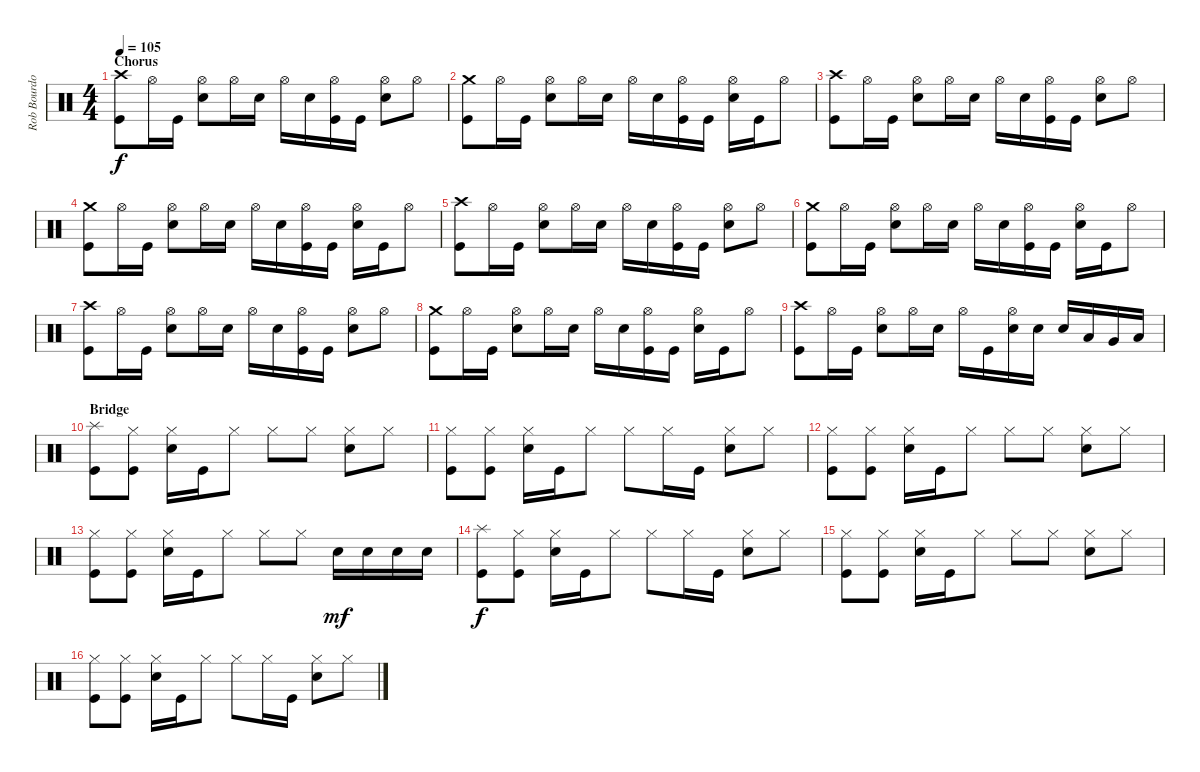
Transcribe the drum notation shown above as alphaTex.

\track ("Rob Bourdon - Drums" "Rob Bourdo") {instrument percussion}
\staff {score}
\articulation defaults
\ts (4 4)
\section ("" "Chorus")
\tempo 105
\clef neutral
\ks c
("Crash high (hit)" "Kick (hit)").8{dy f} "Hi-Hat (open)".16 "Kick (hit)".16 ("Hi-Hat (open)" "Electric Snare (hit)").8 "Hi-Hat (open)".16 "Electric Snare (hit)".16 "Hi-Hat (open)".16 "Electric Snare (hit)".16 ("Hi-Hat (open)" "Kick (hit)").16 "Kick (hit)".16 ("Hi-Hat (open)" "Electric Snare (hit)").8 "Hi-Hat (open)".8 |
("Crash medium (hit)" "Kick (hit)").8 "Hi-Hat (open)".16 "Kick (hit)".16 ("Hi-Hat (open)" "Electric Snare (hit)").8 "Hi-Hat (open)".16 "Electric Snare (hit)".16 "Hi-Hat (open)".16 "Electric Snare (hit)".16 ("Hi-Hat (open)" "Kick (hit)").16 "Kick (hit)".16 ("Hi-Hat (open)" "Electric Snare (hit)").16 "Kick (hit)".16 "Hi-Hat (open)".8 |
("Crash high (hit)" "Kick (hit)").8 "Hi-Hat (open)".16 "Kick (hit)".16 ("Hi-Hat (open)" "Electric Snare (hit)").8 "Hi-Hat (open)".16 "Electric Snare (hit)".16 "Hi-Hat (open)".16 "Electric Snare (hit)".16 ("Hi-Hat (open)" "Kick (hit)").16 "Kick (hit)".16 ("Hi-Hat (open)" "Electric Snare (hit)").8 "Hi-Hat (open)".8 |
("Crash medium (hit)" "Kick (hit)").8 "Hi-Hat (open)".16 "Kick (hit)".16 ("Hi-Hat (open)" "Electric Snare (hit)").8 "Hi-Hat (open)".16 "Electric Snare (hit)".16 "Hi-Hat (open)".16 "Electric Snare (hit)".16 ("Hi-Hat (open)" "Kick (hit)").16 "Kick (hit)".16 ("Hi-Hat (open)" "Electric Snare (hit)").16 "Kick (hit)".16 "Hi-Hat (open)".8 |
("Crash high (hit)" "Kick (hit)").8 "Hi-Hat (open)".16 "Kick (hit)".16 ("Hi-Hat (open)" "Electric Snare (hit)").8 "Hi-Hat (open)".16 "Electric Snare (hit)".16 "Hi-Hat (open)".16 "Electric Snare (hit)".16 ("Hi-Hat (open)" "Kick (hit)").16 "Kick (hit)".16 ("Hi-Hat (open)" "Electric Snare (hit)").8 "Hi-Hat (open)".8 |
("Crash medium (hit)" "Kick (hit)").8 "Hi-Hat (open)".16 "Kick (hit)".16 ("Hi-Hat (open)" "Electric Snare (hit)").8 "Hi-Hat (open)".16 "Electric Snare (hit)".16 "Hi-Hat (open)".16 "Electric Snare (hit)".16 ("Hi-Hat (open)" "Kick (hit)").16 "Kick (hit)".16 ("Hi-Hat (open)" "Electric Snare (hit)").16 "Kick (hit)".16 "Hi-Hat (open)".8 |
("Crash high (hit)" "Kick (hit)").8 "Hi-Hat (open)".16 "Kick (hit)".16 ("Hi-Hat (open)" "Electric Snare (hit)").8 "Hi-Hat (open)".16 "Electric Snare (hit)".16 "Hi-Hat (open)".16 "Electric Snare (hit)".16 ("Hi-Hat (open)" "Kick (hit)").16 "Kick (hit)".16 ("Hi-Hat (open)" "Electric Snare (hit)").8 "Hi-Hat (open)".8 |
("Crash medium (hit)" "Kick (hit)").8 "Hi-Hat (open)".16 "Kick (hit)".16 ("Hi-Hat (open)" "Electric Snare (hit)").8 "Hi-Hat (open)".16 "Electric Snare (hit)".16 "Hi-Hat (open)".16 "Electric Snare (hit)".16 ("Hi-Hat (open)" "Kick (hit)").16 "Kick (hit)".16 ("Hi-Hat (open)" "Electric Snare (hit)").16 "Kick (hit)".16 "Hi-Hat (open)".8 |
("Crash high (hit)" "Kick (hit)").8 "Hi-Hat (open)".16 "Kick (hit)".16 ("Hi-Hat (open)" "Electric Snare (hit)").8 "Hi-Hat (open)".16 "Electric Snare (hit)".16 "Hi-Hat (open)".16 "Kick (hit)".16 ("Hi-Hat (open)" "Electric Snare (hit)").16 "Electric Snare (hit)".16 "Electric Snare (hit)".16 "Low Tom (hit)".16 "Very Low Tom (hit)".16 "Low Floor Tom (hit)".16 |
\section ("" "Bridge")
("Splash (hit)" "Kick (hit)").8 ("Hi-Hat (closed)" "Kick (hit)").8 ("Hi-Hat (closed)" "Electric Snare (hit)").16 "Kick (hit)".16 "Hi-Hat (closed)".8 "Hi-Hat (closed)".8 "Hi-Hat (closed)".8 ("Hi-Hat (closed)" "Electric Snare (hit)").8 "Hi-Hat (closed)".8 |
("Hi-Hat (closed)" "Kick (hit)").8 ("Hi-Hat (closed)" "Kick (hit)").8 ("Hi-Hat (closed)" "Electric Snare (hit)").16 "Kick (hit)".16 "Hi-Hat (closed)".8 "Hi-Hat (closed)".8 "Hi-Hat (closed)".16 "Kick (hit)".16 ("Hi-Hat (closed)" "Electric Snare (hit)").8 "Hi-Hat (closed)".8 |
("Hi-Hat (closed)" "Kick (hit)").8 ("Hi-Hat (closed)" "Kick (hit)").8 ("Hi-Hat (closed)" "Electric Snare (hit)").16 "Kick (hit)".16 "Hi-Hat (closed)".8 "Hi-Hat (closed)".8 "Hi-Hat (closed)".8 ("Hi-Hat (closed)" "Electric Snare (hit)").8 "Hi-Hat (closed)".8 |
("Hi-Hat (closed)" "Kick (hit)").8 ("Hi-Hat (closed)" "Kick (hit)").8 ("Hi-Hat (closed)" "Electric Snare (hit)").16 "Kick (hit)".16 "Hi-Hat (closed)".8 "Hi-Hat (closed)".8 "Hi-Hat (closed)".8 "Electric Snare (hit)".16{dy mf} "Electric Snare (hit)".16 "Electric Snare (hit)".16 "Electric Snare (hit)".16 |
("Splash (hit)" "Kick (hit)").8{dy f} ("Hi-Hat (closed)" "Kick (hit)").8 ("Hi-Hat (closed)" "Electric Snare (hit)").16 "Kick (hit)".16 "Hi-Hat (closed)".8 "Hi-Hat (closed)".8 "Hi-Hat (closed)".16 "Kick (hit)".16 ("Hi-Hat (closed)" "Electric Snare (hit)").8 "Hi-Hat (closed)".8 |
("Hi-Hat (closed)" "Kick (hit)").8 ("Hi-Hat (closed)" "Kick (hit)").8 ("Hi-Hat (closed)" "Electric Snare (hit)").16 "Kick (hit)".16 "Hi-Hat (closed)".8 "Hi-Hat (closed)".8 "Hi-Hat (closed)".8 ("Hi-Hat (closed)" "Electric Snare (hit)").8 "Hi-Hat (closed)".8 |
("Hi-Hat (closed)" "Kick (hit)").8 ("Hi-Hat (closed)" "Kick (hit)").8 ("Hi-Hat (closed)" "Electric Snare (hit)").16 "Kick (hit)".16 "Hi-Hat (closed)".8 "Hi-Hat (closed)".8 "Hi-Hat (closed)".16 "Kick (hit)".16 ("Hi-Hat (closed)" "Electric Snare (hit)").8 "Hi-Hat (closed)".8
